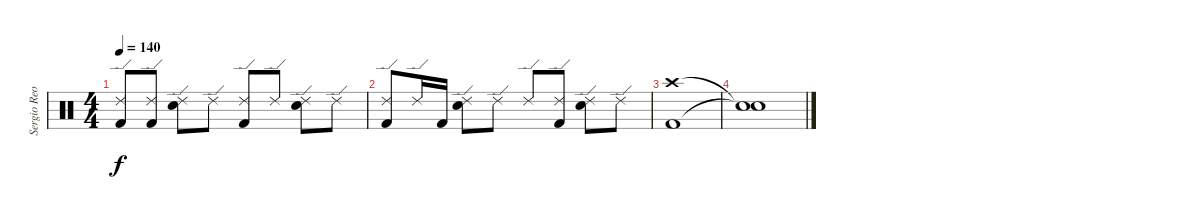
\track ("Sergio Reoli" "Sergio Reo") {instrument percussion}
\staff {score}
\articulation defaults
\ts (4 4)
\tempo 140
\clef neutral
\ks c
("Ride (edge) 2" "Kick (hit) 2").8{dy f} ("Ride (edge) 2" "Kick (hit) 2").8 ("Ride (edge) 2" "Electric Snare (hit)").8 "Ride (edge) 2".8 ("Ride (edge) 2" "Kick (hit) 2").8 "Ride (edge) 2".8 ("Ride (edge) 2" "Electric Snare (hit)").8 "Ride (edge) 2".8 |
("Ride (edge) 2" "Kick (hit) 2").8 "Ride (edge) 2".16 "Kick (hit) 2".16 ("Ride (edge) 2" "Electric Snare (hit)").8 "Ride (edge) 2".8 "Ride (edge) 2".8 ("Ride (edge) 2" "Kick (hit) 2").8 ("Ride (edge) 2" "Electric Snare (hit)").8 "Ride (edge) 2".8 |
("Crash high (hit)" "Kick (hit) 2").1 |
("Snare (hit)"{t} "Snare (hit)"{t}).1
